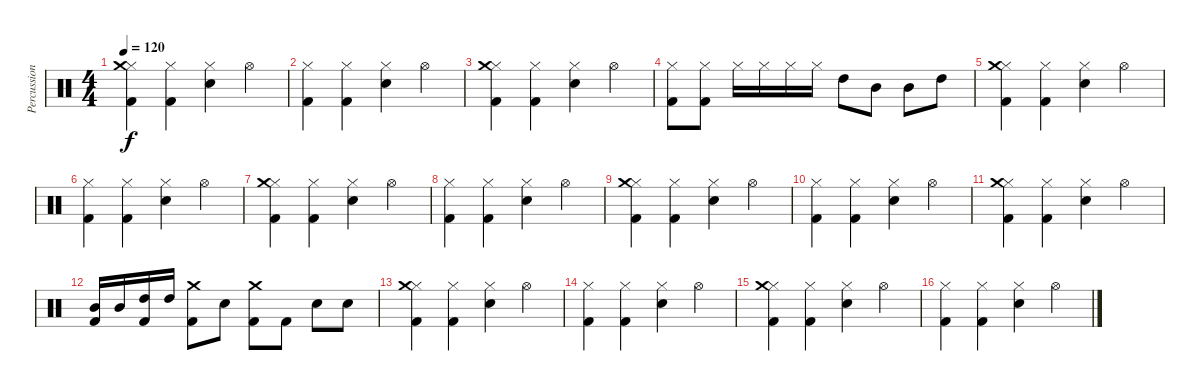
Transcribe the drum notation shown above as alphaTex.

\track ("Percussion" "Percussion") {instrument percussion}
\staff {score}
\articulation defaults
\ts (4 4)
\tempo 120
\clef neutral
\ks c
("Hi-Hat (closed)" "Kick (hit) 2" "Crash medium (hit)").4{dy f} ("Hi-Hat (closed)" "Kick (hit) 2").4 ("Hi-Hat (closed)" "Snare (hit) 2").4 "Hi-Hat (open)".4 |
("Hi-Hat (closed)" "Kick (hit) 2").4 ("Hi-Hat (closed)" "Kick (hit) 2").4 ("Hi-Hat (closed)" "Snare (hit) 2").4 "Hi-Hat (open)".4 |
("Hi-Hat (closed)" "Kick (hit) 2" "Crash medium (hit)").4 ("Hi-Hat (closed)" "Kick (hit) 2").4 ("Hi-Hat (closed)" "Snare (hit) 2").4 "Hi-Hat (open)".4 |
("Hi-Hat (closed)" "Kick (hit) 2").8 ("Hi-Hat (closed)" "Kick (hit) 2").8 "Hi-Hat (closed)".16 "Hi-Hat (closed)".16 "Hi-Hat (closed)".16 "Hi-Hat (closed)".16 "High Tom (hit)".8 "Mid Tom (hit)".8 "Mid Tom (hit)".8 "High Tom (hit)".8 |
("Hi-Hat (closed)" "Kick (hit) 2" "Crash medium (hit)").4 ("Hi-Hat (closed)" "Kick (hit) 2").4 ("Hi-Hat (closed)" "Snare (hit) 2").4 "Hi-Hat (open)".4 |
("Hi-Hat (closed)" "Kick (hit) 2").4 ("Hi-Hat (closed)" "Kick (hit) 2").4 ("Hi-Hat (closed)" "Snare (hit) 2").4 "Hi-Hat (open)".4 |
("Hi-Hat (closed)" "Kick (hit) 2" "Crash medium (hit)").4 ("Hi-Hat (closed)" "Kick (hit) 2").4 ("Hi-Hat (closed)" "Snare (hit) 2").4 "Hi-Hat (open)".4 |
("Hi-Hat (closed)" "Kick (hit) 2").4 ("Hi-Hat (closed)" "Kick (hit) 2").4 ("Hi-Hat (closed)" "Snare (hit) 2").4 "Hi-Hat (open)".4 |
("Hi-Hat (closed)" "Kick (hit) 2" "Crash medium (hit)").4 ("Hi-Hat (closed)" "Kick (hit) 2").4 ("Hi-Hat (closed)" "Snare (hit) 2").4 "Hi-Hat (open)".4 |
("Hi-Hat (closed)" "Kick (hit) 2").4 ("Hi-Hat (closed)" "Kick (hit) 2").4 ("Hi-Hat (closed)" "Snare (hit) 2").4 "Hi-Hat (open)".4 |
("Hi-Hat (closed)" "Kick (hit) 2" "Crash medium (hit)").4 ("Hi-Hat (closed)" "Kick (hit) 2").4 ("Hi-Hat (closed)" "Snare (hit) 2").4 "Hi-Hat (open)".4 |
("Mid Tom (hit)" "Kick (hit) 2").16 "Mid Tom (hit)".16 ("High Tom (hit)" "Kick (hit) 2").16 "High Tom (hit)".16 ("Kick (hit) 2" "Crash medium (hit)").8 "Snare (hit) 2".8 ("Kick (hit) 2" "Crash medium (hit)").8 "Kick (hit) 2".8 "Snare (hit) 2".8 "Snare (hit) 2".8 |
("Hi-Hat (closed)" "Kick (hit) 2" "Crash medium (hit)").4 ("Hi-Hat (closed)" "Kick (hit) 2").4 ("Hi-Hat (closed)" "Snare (hit) 2").4 "Hi-Hat (open)".4 |
("Hi-Hat (closed)" "Kick (hit) 2").4 ("Hi-Hat (closed)" "Kick (hit) 2").4 ("Hi-Hat (closed)" "Snare (hit) 2").4 "Hi-Hat (open)".4 |
("Hi-Hat (closed)" "Kick (hit) 2" "Crash medium (hit)").4 ("Hi-Hat (closed)" "Kick (hit) 2").4 ("Hi-Hat (closed)" "Snare (hit) 2").4 "Hi-Hat (open)".4 |
("Hi-Hat (closed)" "Kick (hit) 2").4 ("Hi-Hat (closed)" "Kick (hit) 2").4 ("Hi-Hat (closed)" "Snare (hit) 2").4 "Hi-Hat (open)".4
